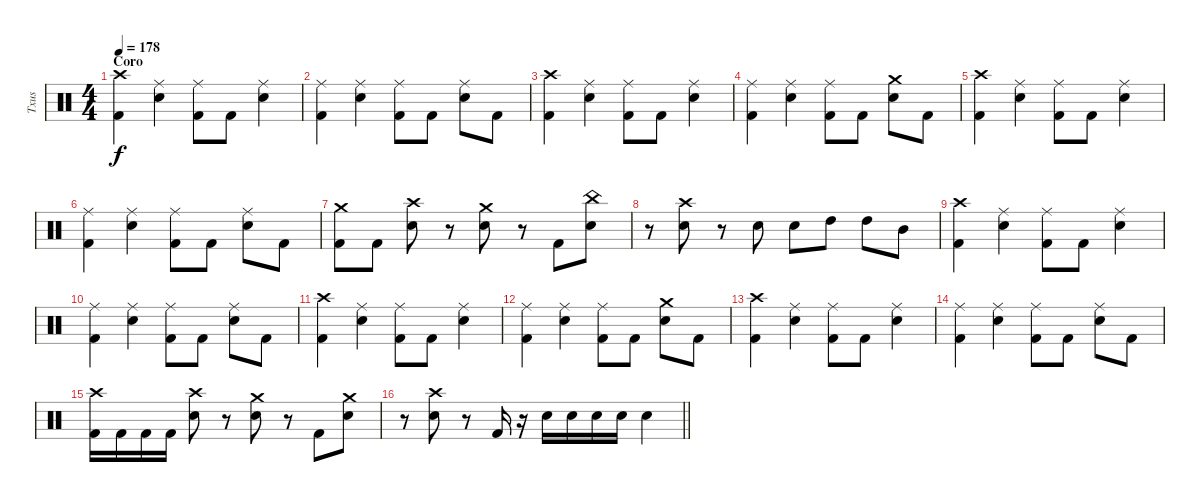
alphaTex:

\track ("Txus" "Txus") {instrument percussion}
\staff {score}
\articulation defaults
\ts (4 4)
\section ("" "Coro")
\tempo 178
\clef neutral
\ks c
("Crash high (hit)" "Kick (hit) 2").4{dy f} ("Ride (middle)" "Electric Snare (hit)").4 ("Ride (middle)" "Kick (hit) 2").8 "Kick (hit) 2".8 ("Ride (middle)" "Electric Snare (hit)").4 |
("Ride (middle)" "Kick (hit) 2").4 ("Ride (middle)" "Electric Snare (hit)").4 ("Ride (middle)" "Kick (hit) 2").8 "Kick (hit) 2".8 ("Ride (middle)" "Electric Snare (hit)").8 "Kick (hit) 2".8 |
("Crash high (hit)" "Kick (hit) 2").4 ("Ride (middle)" "Electric Snare (hit)").4 ("Ride (middle)" "Kick (hit) 2").8 "Kick (hit) 2".8 ("Ride (middle)" "Electric Snare (hit)").4 |
("Ride (middle)" "Kick (hit) 2").4 ("Ride (middle)" "Electric Snare (hit)").4 ("Ride (middle)" "Kick (hit) 2").8 "Kick (hit) 2".8 ("Crash medium (hit)" "Electric Snare (hit)").8 "Kick (hit) 2".8 |
("Crash high (hit)" "Kick (hit) 2").4 ("Ride (middle)" "Electric Snare (hit)").4 ("Ride (middle)" "Kick (hit) 2").8 "Kick (hit) 2".8 ("Ride (middle)" "Electric Snare (hit)").4 |
("Ride (middle)" "Kick (hit) 2").4 ("Ride (middle)" "Electric Snare (hit)").4 ("Ride (middle)" "Kick (hit) 2").8 "Kick (hit) 2".8 ("Ride (middle)" "Electric Snare (hit)").8 "Kick (hit) 2".8 |
("Crash medium (hit)" "Kick (hit) 2").8 "Kick (hit) 2".8 ("Crash high (hit)" "Electric Snare (hit)").8 r.8 ("Crash medium (hit)" "Electric Snare (hit)").8 r.8 "Kick (hit) 2".8 ("China (hit)" "Electric Snare (hit)").8 |
r.8 ("Crash high (hit)" "Electric Snare (hit)").8 r.8 "Electric Snare (hit)".8 "Electric Snare (hit)".8 "High Tom (hit)".8 "High Tom (hit)".8 "Mid Tom (hit)".8 |
("Crash high (hit)" "Kick (hit) 2").4 ("Ride (middle)" "Electric Snare (hit)").4 ("Ride (middle)" "Kick (hit) 2").8 "Kick (hit) 2".8 ("Ride (middle)" "Electric Snare (hit)").4 |
("Ride (middle)" "Kick (hit) 2").4 ("Ride (middle)" "Electric Snare (hit)").4 ("Ride (middle)" "Kick (hit) 2").8 "Kick (hit) 2".8 ("Ride (middle)" "Electric Snare (hit)").8 "Kick (hit) 2".8 |
("Crash high (hit)" "Kick (hit) 2").4 ("Ride (middle)" "Electric Snare (hit)").4 ("Ride (middle)" "Kick (hit) 2").8 "Kick (hit) 2".8 ("Ride (middle)" "Electric Snare (hit)").4 |
("Ride (middle)" "Kick (hit) 2").4 ("Ride (middle)" "Electric Snare (hit)").4 ("Ride (middle)" "Kick (hit) 2").8 "Kick (hit) 2".8 ("Crash medium (hit)" "Electric Snare (hit)").8 "Kick (hit) 2".8 |
("Crash high (hit)" "Kick (hit) 2").4 ("Ride (middle)" "Electric Snare (hit)").4 ("Ride (middle)" "Kick (hit) 2").8 "Kick (hit) 2".8 ("Ride (middle)" "Electric Snare (hit)").4 |
("Ride (middle)" "Kick (hit) 2").4 ("Ride (middle)" "Electric Snare (hit)").4 ("Ride (middle)" "Kick (hit) 2").8 "Kick (hit) 2".8 ("Ride (middle)" "Electric Snare (hit)").8 "Kick (hit) 2".8 |
("Crash high (hit)" "Kick (hit) 2").16 "Kick (hit) 2".16 "Kick (hit) 2".16 "Kick (hit) 2".16 ("Crash high (hit)" "Electric Snare (hit)").8 r.8 ("Crash medium (hit)" "Electric Snare (hit)").8 r.8 "Kick (hit) 2".8 ("Crash medium (hit)" "Electric Snare (hit)").8 |
\barLineRight lightlight
r.8 ("Crash high (hit)" "Electric Snare (hit)").8 r.8 "Kick (hit) 2".16 r.16 "Electric Snare (hit)".16 "Electric Snare (hit)".16 "Electric Snare (hit)".16 "Electric Snare (hit)".16 "Electric Snare (hit)".4
